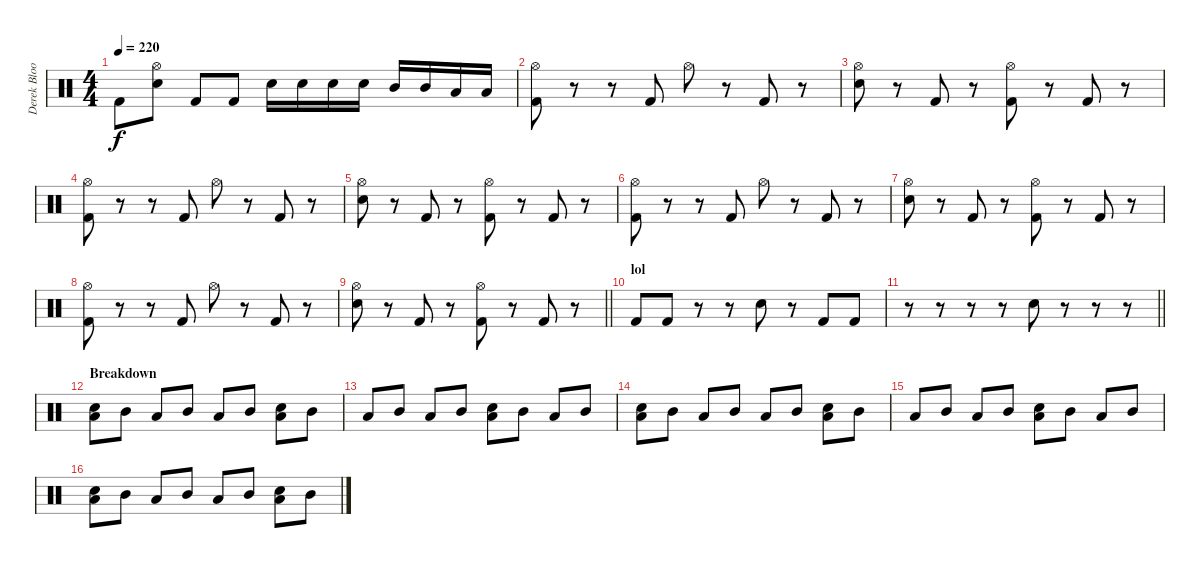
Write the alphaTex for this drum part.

\track ("Derek Bloom - Drums" "Derek Bloo") {instrument percussion}
\staff {score}
\articulation defaults
\ts (4 4)
\tempo 220
\clef neutral
\ks c "Kick (hit) 2".8{dy f}
("Hi-Hat (open)" "Electric Snare (hit)").8 "Kick (hit) 2".8 "Kick (hit) 2".8 "Electric Snare (hit)".16 "Electric Snare (hit)".16 "Electric Snare (hit)".16 "Electric Snare (hit)".16 "Mid Tom (hit)".16 "Mid Tom (hit)".16 "Low Tom (hit)".16 "Low Tom (hit)".16 |
("Hi-Hat (open)" "Kick (hit) 2").8 r.8 r.8 "Kick (hit) 2".8 "Hi-Hat (open)".8 r.8 "Kick (hit) 2".8 r.8 |
("Hi-Hat (open)" "Electric Snare (hit)").8 r.8 "Kick (hit) 2".8 r.8 ("Hi-Hat (open)" "Kick (hit) 2").8 r.8 "Kick (hit) 2".8 r.8 |
("Hi-Hat (open)" "Kick (hit) 2").8 r.8 r.8 "Kick (hit) 2".8 "Hi-Hat (open)".8 r.8 "Kick (hit) 2".8 r.8 |
("Hi-Hat (open)" "Electric Snare (hit)").8 r.8 "Kick (hit) 2".8 r.8 ("Hi-Hat (open)" "Kick (hit) 2").8 r.8 "Kick (hit) 2".8 r.8 |
("Hi-Hat (open)" "Kick (hit) 2").8 r.8 r.8 "Kick (hit) 2".8 "Hi-Hat (open)".8 r.8 "Kick (hit) 2".8 r.8 |
("Hi-Hat (open)" "Electric Snare (hit)").8 r.8 "Kick (hit) 2".8 r.8 ("Hi-Hat (open)" "Kick (hit) 2").8 r.8 "Kick (hit) 2".8 r.8 |
("Hi-Hat (open)" "Kick (hit) 2").8 r.8 r.8 "Kick (hit) 2".8 "Hi-Hat (open)".8 r.8 "Kick (hit) 2".8 r.8 |
\barLineRight lightlight
("Hi-Hat (open)" "Electric Snare (hit)").8 r.8 "Kick (hit) 2".8 r.8 ("Hi-Hat (open)" "Kick (hit) 2").8 r.8 "Kick (hit) 2".8 r.8 |
\section ("" "lol")
"Kick (hit) 2".8 "Kick (hit) 2".8 r.8 r.8 "Electric Snare (hit)".8 r.8 "Kick (hit) 2".8 "Kick (hit) 2".8 |
\barLineRight lightlight
r.8 r.8 r.8 r.8 "Electric Snare (hit)".8 r.8 r.8 r.8 |
\section ("" "Breakdown")
("Electric Snare (hit)" "Low Tom (hit)").8 "Mid Tom (hit)".8 "Low Tom (hit)".8 "Mid Tom (hit)".8 "Low Tom (hit)".8 "Mid Tom (hit)".8 ("Electric Snare (hit)" "Low Tom (hit)").8 "Mid Tom (hit)".8 |
"Low Tom (hit)".8 "Mid Tom (hit)".8 "Low Tom (hit)".8 "Mid Tom (hit)".8 ("Electric Snare (hit)" "Low Tom (hit)").8 "Mid Tom (hit)".8 "Low Tom (hit)".8 "Mid Tom (hit)".8 |
("Electric Snare (hit)" "Low Tom (hit)").8 "Mid Tom (hit)".8 "Low Tom (hit)".8 "Mid Tom (hit)".8 "Low Tom (hit)".8 "Mid Tom (hit)".8 ("Electric Snare (hit)" "Low Tom (hit)").8 "Mid Tom (hit)".8 |
"Low Tom (hit)".8 "Mid Tom (hit)".8 "Low Tom (hit)".8 "Mid Tom (hit)".8 ("Electric Snare (hit)" "Low Tom (hit)").8 "Mid Tom (hit)".8 "Low Tom (hit)".8 "Mid Tom (hit)".8 |
("Electric Snare (hit)" "Low Tom (hit)").8 "Mid Tom (hit)".8 "Low Tom (hit)".8 "Mid Tom (hit)".8 "Low Tom (hit)".8 "Mid Tom (hit)".8 ("Electric Snare (hit)" "Low Tom (hit)").8 "Mid Tom (hit)".8
